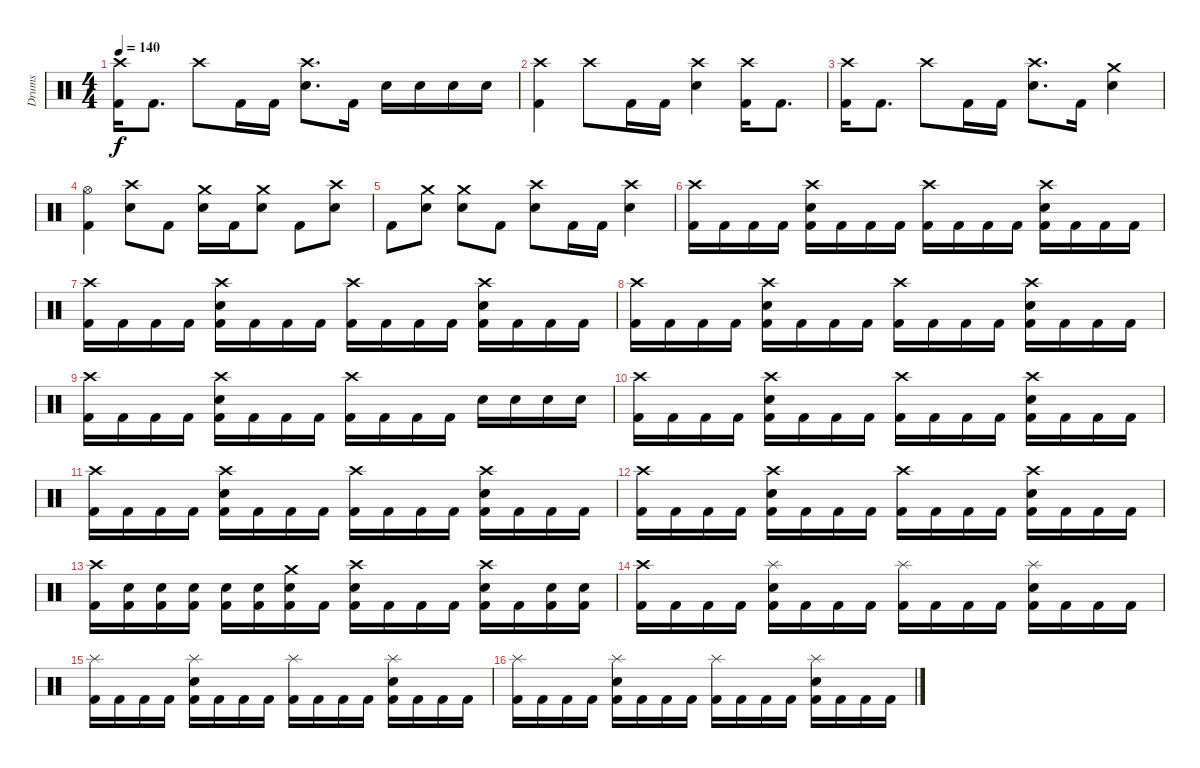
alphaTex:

\track ("Drums" "Drums") {instrument percussion}
\staff {score}
\articulation defaults
\ts (4 4)
\tempo 140
\clef neutral
\ks c
("Crash high (hit)" "Kick (hit) 2").16{dy f} "Kick (hit) 2".8{d} "Crash high (hit)".8 "Kick (hit) 2".16 "Kick (hit) 2".16 ("Crash high (hit)" "Electric Snare (hit)").8{d} "Kick (hit) 2".16 "Electric Snare (hit)".16 "Electric Snare (hit)".16 "Electric Snare (hit)".16 "Electric Snare (hit)".16 |
("Crash high (hit)" "Kick (hit) 2").4 "Crash high (hit)".8 "Kick (hit) 2".16 "Kick (hit) 2".16 ("Crash high (hit)" "Electric Snare (hit)").4 ("Crash high (hit)" "Kick (hit) 2").16 "Kick (hit) 2".8{d} |
("Crash high (hit)" "Kick (hit) 2").16 "Kick (hit) 2".8{d} "Crash high (hit)".8 "Kick (hit) 2".16 "Kick (hit) 2".16 ("Crash high (hit)" "Electric Snare (hit)").8{d} "Kick (hit) 2".16 ("Crash medium (hit)" "Electric Snare (hit)").4 |
("Hi-Hat (open)" "Kick (hit) 2").4 ("Crash high (hit)" "Electric Snare (hit)").8 "Kick (hit) 2".8 ("Crash medium (hit)" "Electric Snare (hit)").16 "Kick (hit) 2".16 ("Crash medium (hit)" "Electric Snare (hit)").8 "Kick (hit) 2".8 ("Crash high (hit)" "Electric Snare (hit)").8 |
"Kick (hit) 2".8 ("Crash medium (hit)" "Electric Snare (hit)").8 ("Crash medium (hit)" "Electric Snare (hit)").8 "Kick (hit) 2".8 ("Crash high (hit)" "Electric Snare (hit)").8 "Kick (hit) 2".16 "Kick (hit) 2".16 ("Crash high (hit)" "Electric Snare (hit)").4 |
("Crash high (hit)" "Kick (hit) 2").16 "Kick (hit) 2".16 "Kick (hit) 2".16 "Kick (hit) 2".16 ("Crash high (hit)" "Electric Snare (hit)" "Kick (hit) 2").16 "Kick (hit) 2".16 "Kick (hit) 2".16 "Kick (hit) 2".16 ("Crash high (hit)" "Kick (hit) 2").16 "Kick (hit) 2".16 "Kick (hit) 2".16 "Kick (hit) 2".16 ("Crash high (hit)" "Electric Snare (hit)" "Kick (hit) 2").16 "Kick (hit) 2".16 "Kick (hit) 2".16 "Kick (hit) 2".16 |
("Crash high (hit)" "Kick (hit) 2").16 "Kick (hit) 2".16 "Kick (hit) 2".16 "Kick (hit) 2".16 ("Crash high (hit)" "Electric Snare (hit)" "Kick (hit) 2").16 "Kick (hit) 2".16 "Kick (hit) 2".16 "Kick (hit) 2".16 ("Crash high (hit)" "Kick (hit) 2").16 "Kick (hit) 2".16 "Kick (hit) 2".16 "Kick (hit) 2".16 ("Crash high (hit)" "Electric Snare (hit)" "Kick (hit) 2").16 "Kick (hit) 2".16 "Kick (hit) 2".16 "Kick (hit) 2".16 |
("Crash high (hit)" "Kick (hit) 2").16 "Kick (hit) 2".16 "Kick (hit) 2".16 "Kick (hit) 2".16 ("Crash high (hit)" "Electric Snare (hit)" "Kick (hit) 2").16 "Kick (hit) 2".16 "Kick (hit) 2".16 "Kick (hit) 2".16 ("Crash high (hit)" "Kick (hit) 2").16 "Kick (hit) 2".16 "Kick (hit) 2".16 "Kick (hit) 2".16 ("Crash high (hit)" "Electric Snare (hit)" "Kick (hit) 2").16 "Kick (hit) 2".16 "Kick (hit) 2".16 "Kick (hit) 2".16 |
("Crash high (hit)" "Kick (hit) 2").16 "Kick (hit) 2".16 "Kick (hit) 2".16 "Kick (hit) 2".16 ("Crash high (hit)" "Electric Snare (hit)" "Kick (hit) 2").16 "Kick (hit) 2".16 "Kick (hit) 2".16 "Kick (hit) 2".16 ("Crash high (hit)" "Kick (hit) 2").16 "Kick (hit) 2".16 "Kick (hit) 2".16 "Kick (hit) 2".16 "Electric Snare (hit)".16 "Electric Snare (hit)".16 "Electric Snare (hit)".16 "Electric Snare (hit)".16 |
("Crash high (hit)" "Kick (hit) 2").16 "Kick (hit) 2".16 "Kick (hit) 2".16 "Kick (hit) 2".16 ("Crash high (hit)" "Electric Snare (hit)" "Kick (hit) 2").16 "Kick (hit) 2".16 "Kick (hit) 2".16 "Kick (hit) 2".16 ("Crash high (hit)" "Kick (hit) 2").16 "Kick (hit) 2".16 "Kick (hit) 2".16 "Kick (hit) 2".16 ("Crash high (hit)" "Electric Snare (hit)" "Kick (hit) 2").16 "Kick (hit) 2".16 "Kick (hit) 2".16 "Kick (hit) 2".16 |
("Crash high (hit)" "Kick (hit) 2").16 "Kick (hit) 2".16 "Kick (hit) 2".16 "Kick (hit) 2".16 ("Crash high (hit)" "Electric Snare (hit)" "Kick (hit) 2").16 "Kick (hit) 2".16 "Kick (hit) 2".16 "Kick (hit) 2".16 ("Crash high (hit)" "Kick (hit) 2").16 "Kick (hit) 2".16 "Kick (hit) 2".16 "Kick (hit) 2".16 ("Crash high (hit)" "Electric Snare (hit)" "Kick (hit) 2").16 "Kick (hit) 2".16 "Kick (hit) 2".16 "Kick (hit) 2".16 |
("Crash high (hit)" "Kick (hit) 2").16 "Kick (hit) 2".16 "Kick (hit) 2".16 "Kick (hit) 2".16 ("Crash high (hit)" "Electric Snare (hit)" "Kick (hit) 2").16 "Kick (hit) 2".16 "Kick (hit) 2".16 "Kick (hit) 2".16 ("Crash high (hit)" "Kick (hit) 2").16 "Kick (hit) 2".16 "Kick (hit) 2".16 "Kick (hit) 2".16 ("Crash high (hit)" "Electric Snare (hit)" "Kick (hit) 2").16 "Kick (hit) 2".16 "Kick (hit) 2".16 "Kick (hit) 2".16 |
("Crash high (hit)" "Kick (hit) 2").16 ("Electric Snare (hit)" "Kick (hit) 2").16 ("Electric Snare (hit)" "Kick (hit) 2").16 ("Electric Snare (hit)" "Kick (hit) 2").16 ("Electric Snare (hit)" "Kick (hit) 2").16 ("Electric Snare (hit)" "Kick (hit) 2").16 ("Crash medium (hit)" "Electric Snare (hit)" "Kick (hit) 2").16 "Kick (hit) 2".16 ("Crash high (hit)" "Electric Snare (hit)" "Kick (hit) 2").16 "Kick (hit) 2".16 "Kick (hit) 2".16 "Kick (hit) 2".16 ("Crash high (hit)" "Electric Snare (hit)" "Kick (hit) 2").16 "Kick (hit) 2".16 ("Electric Snare (hit)" "Kick (hit) 2").16 ("Electric Snare (hit)" "Kick (hit) 2").16 |
("Crash high (hit)" "Kick (hit) 2").16 "Kick (hit) 2".16 "Kick (hit) 2".16 "Kick (hit) 2".16 ("Splash (hit)" "Electric Snare (hit)" "Kick (hit) 2").16 "Kick (hit) 2".16 "Kick (hit) 2".16 "Kick (hit) 2".16 ("Splash (hit)" "Kick (hit) 2").16 "Kick (hit) 2".16 "Kick (hit) 2".16 "Kick (hit) 2".16 ("Splash (hit)" "Electric Snare (hit)" "Kick (hit) 2").16 "Kick (hit) 2".16 "Kick (hit) 2".16 "Kick (hit) 2".16 |
("Splash (hit)" "Kick (hit) 2").16 "Kick (hit) 2".16 "Kick (hit) 2".16 "Kick (hit) 2".16 ("Splash (hit)" "Electric Snare (hit)" "Kick (hit) 2").16 "Kick (hit) 2".16 "Kick (hit) 2".16 "Kick (hit) 2".16 ("Splash (hit)" "Kick (hit) 2").16 "Kick (hit) 2".16 "Kick (hit) 2".16 "Kick (hit) 2".16 ("Splash (hit)" "Electric Snare (hit)" "Kick (hit) 2").16 "Kick (hit) 2".16 "Kick (hit) 2".16 "Kick (hit) 2".16 |
("Splash (hit)" "Kick (hit) 2").16 "Kick (hit) 2".16 "Kick (hit) 2".16 "Kick (hit) 2".16 ("Splash (hit)" "Electric Snare (hit)" "Kick (hit) 2").16 "Kick (hit) 2".16 "Kick (hit) 2".16 "Kick (hit) 2".16 ("Splash (hit)" "Kick (hit) 2").16 "Kick (hit) 2".16 "Kick (hit) 2".16 "Kick (hit) 2".16 ("Splash (hit)" "Electric Snare (hit)" "Kick (hit) 2").16 "Kick (hit) 2".16 "Kick (hit) 2".16 "Kick (hit) 2".16
